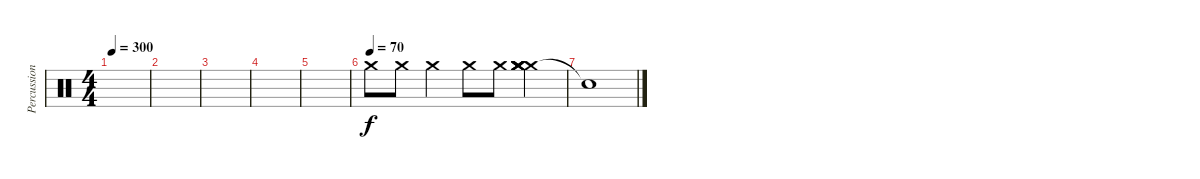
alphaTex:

\track ("Percussion" "Percussion") {instrument percussion}
\staff {score}
\articulation defaults
\ts (4 4)
\tempo 300
\clef neutral
\ks c
|
|
|
|
|
\tempo (70)
"Crash medium (hit)".8 "Crash medium (hit)".8 "Crash medium (hit)".4 "Crash medium (hit)".8 "Crash medium (hit)".8 ("Crash medium (hit)" "Crash medium (hit)" "Crash medium (hit)" "Crash medium (hit)" "Crash medium (hit)" "Crash medium (hit)").4 |
"Snare (hit)"{t}.1
